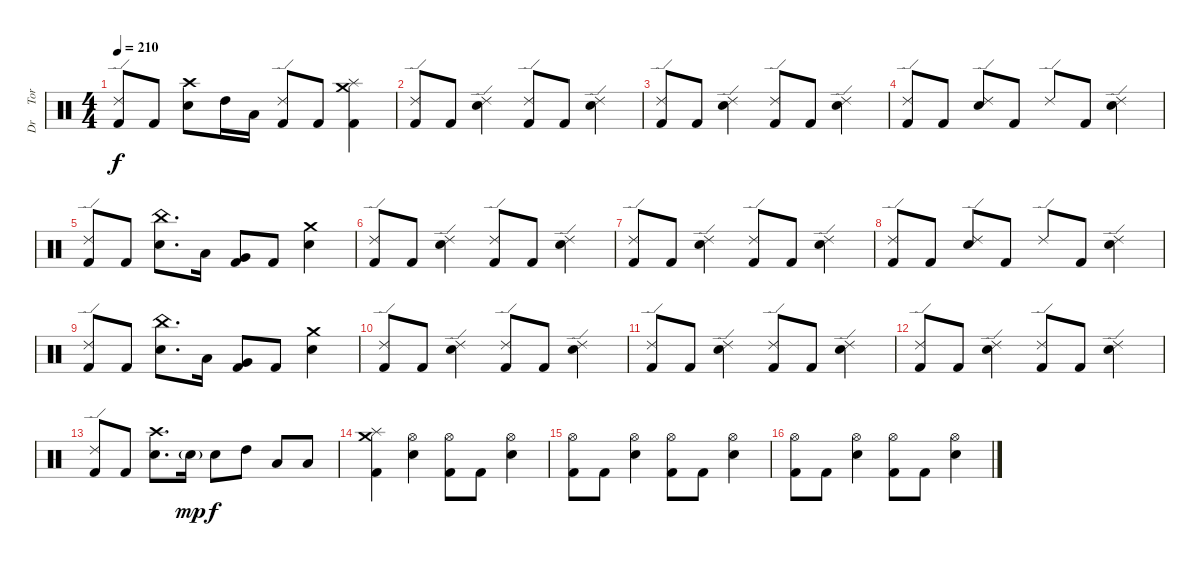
\track ("Dr     Tora" "Dr     Tor") {instrument percussion}
\staff {score}
\articulation defaults
\ts (4 4)
\tempo 210
\clef neutral
\ks c
("Ride (edge) 2" "Kick (hit) 2").8{dy f} "Kick (hit) 2".8 ("Crash high (hit)" "Electric Snare (hit)").8 "High Tom (hit)".16 "Low Tom (hit)".16 ("Ride (edge) 2" "Kick (hit) 2").8 "Kick (hit) 2".8 ("Crash medium (hit)" "Splash (hit)" "Kick (hit) 2").4 |
("Ride (edge) 2" "Kick (hit) 2").8 "Kick (hit) 2".8 ("Ride (edge) 2" "Electric Snare (hit)").4 ("Ride (edge) 2" "Kick (hit) 2").8 "Kick (hit) 2".8 ("Ride (edge) 2" "Electric Snare (hit)").4 |
("Ride (edge) 2" "Kick (hit) 2").8 "Kick (hit) 2".8 ("Ride (edge) 2" "Electric Snare (hit)").4 ("Ride (edge) 2" "Kick (hit) 2").8 "Kick (hit) 2".8 ("Ride (edge) 2" "Electric Snare (hit)").4 |
("Ride (edge) 2" "Kick (hit) 2").8 "Kick (hit) 2".8 ("Ride (edge) 2" "Electric Snare (hit)").8 "Kick (hit) 2".8 "Ride (edge) 2".8 "Kick (hit) 2".8 ("Ride (edge) 2" "Electric Snare (hit)").4 |
("Ride (edge) 2" "Kick (hit) 2").8 "Kick (hit) 2".8 ("China (hit)" "Electric Snare (hit)").8{d} "Low Tom (hit)".16 ("Very Low Tom (hit)" "Kick (hit) 2").8 "Kick (hit) 2".8 ("Crash medium (hit)" "Electric Snare (hit)").4 |
("Ride (edge) 2" "Kick (hit) 2").8 "Kick (hit) 2".8 ("Ride (edge) 2" "Electric Snare (hit)").4 ("Ride (edge) 2" "Kick (hit) 2").8 "Kick (hit) 2".8 ("Ride (edge) 2" "Electric Snare (hit)").4 |
("Ride (edge) 2" "Kick (hit) 2").8 "Kick (hit) 2".8 ("Ride (edge) 2" "Electric Snare (hit)").4 ("Ride (edge) 2" "Kick (hit) 2").8 "Kick (hit) 2".8 ("Ride (edge) 2" "Electric Snare (hit)").4 |
("Ride (edge) 2" "Kick (hit) 2").8 "Kick (hit) 2".8 ("Ride (edge) 2" "Electric Snare (hit)").8 "Kick (hit) 2".8 "Ride (edge) 2".8 "Kick (hit) 2".8 ("Ride (edge) 2" "Electric Snare (hit)").4 |
("Ride (edge) 2" "Kick (hit) 2").8 "Kick (hit) 2".8 ("China (hit)" "Electric Snare (hit)").8{d} "Low Tom (hit)".16 ("Very Low Tom (hit)" "Kick (hit) 2").8 "Kick (hit) 2".8 ("Crash medium (hit)" "Electric Snare (hit)").4 |
("Ride (edge) 2" "Kick (hit) 2").8 "Kick (hit) 2".8 ("Ride (edge) 2" "Electric Snare (hit)").4 ("Ride (edge) 2" "Kick (hit) 2").8 "Kick (hit) 2".8 ("Ride (edge) 2" "Electric Snare (hit)").4 |
("Ride (edge) 2" "Kick (hit) 2").8 "Kick (hit) 2".8 ("Ride (edge) 2" "Electric Snare (hit)").4 ("Ride (edge) 2" "Kick (hit) 2").8 "Kick (hit) 2".8 ("Ride (edge) 2" "Electric Snare (hit)").4 |
("Ride (edge) 2" "Kick (hit) 2").8 "Kick (hit) 2".8 ("Ride (edge) 2" "Electric Snare (hit)").4 ("Ride (edge) 2" "Kick (hit) 2").8 "Kick (hit) 2".8 ("Ride (edge) 2" "Electric Snare (hit)").4 |
("Ride (edge) 2" "Kick (hit) 2").8 "Kick (hit) 2".8 ("Crash high (hit)" "Electric Snare (hit)").8{d} "Electric Snare (hit)"{g}.16{dy mp} "Electric Snare (hit)".8{dy f} "High Tom (hit)".8 "Low Tom (hit)".8 "Low Tom (hit)".8 |
("Splash (hit)" "Crash medium (hit)" "Kick (hit) 2").4 ("Hi-Hat (open)" "Electric Snare (hit)").4 ("Hi-Hat (open)" "Kick (hit) 2").8 "Kick (hit) 2".8 ("Hi-Hat (open)" "Electric Snare (hit)").4 |
("Hi-Hat (open)" "Kick (hit) 2").8 "Kick (hit) 2".8 ("Hi-Hat (open)" "Electric Snare (hit)").4 ("Hi-Hat (open)" "Kick (hit) 2").8 "Kick (hit) 2".8 ("Hi-Hat (open)" "Electric Snare (hit)").4 |
("Hi-Hat (open)" "Kick (hit) 2").8 "Kick (hit) 2".8 ("Hi-Hat (open)" "Electric Snare (hit)").4 ("Hi-Hat (open)" "Kick (hit) 2").8 "Kick (hit) 2".8 ("Hi-Hat (open)" "Electric Snare (hit)").4
